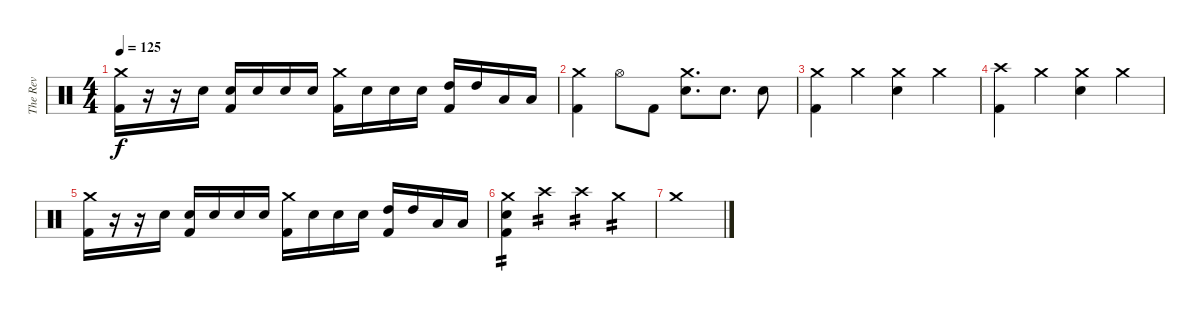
\track ("The Rev" "The Rev") {instrument percussion}
\staff {score}
\articulation defaults
\ts (4 4)
\tempo 125
\clef neutral
\ks c
("Crash medium (hit)" "Kick (hit) 2").16{dy f} r.16 r.16 "Electric Snare (hit)".16 ("Electric Snare (hit)" "Kick (hit) 2").16 "Electric Snare (hit)".16 "Electric Snare (hit)".16 "Electric Snare (hit)".16 ("Crash medium (hit)" "Kick (hit) 2").16 "Electric Snare (hit)".16 "Electric Snare (hit)".16 "Electric Snare (hit)".16 ("High Tom (hit)" "Kick (hit) 2").16 "High Tom (hit)".16 "Low Tom (hit)".16 "Low Tom (hit)".16 |
("Crash medium (hit)" "Kick (hit) 2").4 "Hi-Hat (open)".8 "Kick (hit) 2".8 ("Crash medium (hit)" "Electric Snare (hit)").8{d} "Electric Snare (hit)".8{d} "Electric Snare (hit)".8 |
("Crash medium (hit)" "Kick (hit) 2").4 "Crash medium (hit)".4 ("Crash medium (hit)" "Electric Snare (hit)").4 "Crash medium (hit)".4 |
("Crash high (hit)" "Kick (hit) 2").4 "Crash medium (hit)".4 ("Crash medium (hit)" "Electric Snare (hit)").4 "Crash medium (hit)".4 |
("Crash medium (hit)" "Kick (hit) 2").16 r.16 r.16 "Electric Snare (hit)".16 ("Electric Snare (hit)" "Kick (hit) 2").16 "Electric Snare (hit)".16 "Electric Snare (hit)".16 "Electric Snare (hit)".16 ("Crash medium (hit)" "Kick (hit) 2").16 "Electric Snare (hit)".16 "Electric Snare (hit)".16 "Electric Snare (hit)".16 ("High Tom (hit)" "Kick (hit) 2").16 "High Tom (hit)".16 "Low Tom (hit)".16 "Low Tom (hit)".16 |
("Crash medium (hit)" "Electric Snare (hit)" "Kick (hit) 2").4{tp 2} "Crash high (hit)".4{tp 2} "Crash high (hit)".4{tp 2} "Crash medium (hit)".4{tp 2} |
"Crash medium (hit)".1
